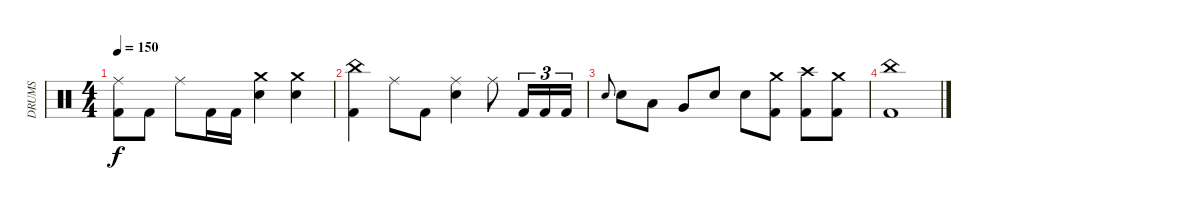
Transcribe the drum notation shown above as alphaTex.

\track ("DRUMS" "DRUMS") {instrument percussion}
\staff {score}
\articulation defaults
\ts (4 4)
\tempo 150
\clef neutral
\ks c
("Ride (middle)" "Kick (hit) 2").8{dy f} "Kick (hit) 2".8 "Ride (middle)".8 "Kick (hit) 2".16 "Kick (hit) 2".16 ("Crash medium (hit)" "Snare (hit) 2").4 ("Crash medium (hit)" "Snare (hit) 2").4 |
("China (hit)" "Kick (hit) 2").4 "Ride (middle)".8 "Kick (hit) 2".8 ("Ride (middle)" "Snare (hit) 2").4 "Ride (middle)".8 "Kick (hit) 2".16{tu (3 2)} "Kick (hit) 2".16{tu (3 2)} "Kick (hit) 2".16{tu (3 2)} |
"Snare (hit) 2".8{gr onbeat} "Snare (hit) 2".8 "Low Tom (hit)".8 "Very Low Tom (hit)".8 "Snare (hit) 2".8 "Snare (hit) 2".8 ("Crash medium (hit)" "Kick (hit) 2").8 ("Crash high (hit)" "Kick (hit) 2").8 ("Crash medium (hit)" "Kick (hit) 2").8 |
("China (hit)" "Kick (hit) 2").1
